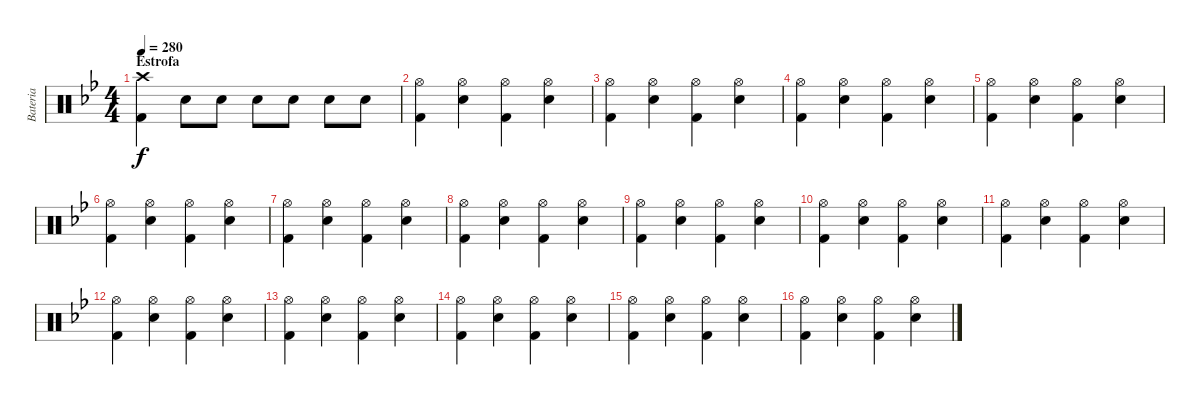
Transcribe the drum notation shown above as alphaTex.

\track ("Bateria" "Bateria") {instrument percussion}
\staff {score}
\articulation defaults
\ts (4 4)
\section ("" "Estrofa")
\tempo 280
\clef neutral
\ks bb
("Crash high (hit)" "Kick (hit) 2").4{dy f} "Electric Snare (hit)".8 "Electric Snare (hit)".8 "Electric Snare (hit)".8 "Electric Snare (hit)".8 "Electric Snare (hit)".8 "Electric Snare (hit)".8 |
("Hi-Hat (open)" "Kick (hit) 2").4 ("Hi-Hat (open)" "Electric Snare (hit)").4 ("Hi-Hat (open)" "Kick (hit) 2").4 ("Hi-Hat (open)" "Electric Snare (hit)").4 |
("Hi-Hat (open)" "Kick (hit) 2").4 ("Hi-Hat (open)" "Electric Snare (hit)").4 ("Hi-Hat (open)" "Kick (hit) 2").4 ("Hi-Hat (open)" "Electric Snare (hit)").4 |
("Hi-Hat (open)" "Kick (hit) 2").4 ("Hi-Hat (open)" "Electric Snare (hit)").4 ("Hi-Hat (open)" "Kick (hit) 2").4 ("Hi-Hat (open)" "Electric Snare (hit)").4 |
("Hi-Hat (open)" "Kick (hit) 2").4 ("Hi-Hat (open)" "Electric Snare (hit)").4 ("Hi-Hat (open)" "Kick (hit) 2").4 ("Hi-Hat (open)" "Electric Snare (hit)").4 |
("Hi-Hat (open)" "Kick (hit) 2").4 ("Hi-Hat (open)" "Electric Snare (hit)").4 ("Hi-Hat (open)" "Kick (hit) 2").4 ("Hi-Hat (open)" "Electric Snare (hit)").4 |
("Hi-Hat (open)" "Kick (hit) 2").4 ("Hi-Hat (open)" "Electric Snare (hit)").4 ("Hi-Hat (open)" "Kick (hit) 2").4 ("Hi-Hat (open)" "Electric Snare (hit)").4 |
("Hi-Hat (open)" "Kick (hit) 2").4 ("Hi-Hat (open)" "Electric Snare (hit)").4 ("Hi-Hat (open)" "Kick (hit) 2").4 ("Hi-Hat (open)" "Electric Snare (hit)").4 |
("Hi-Hat (open)" "Kick (hit) 2").4 ("Hi-Hat (open)" "Electric Snare (hit)").4 ("Hi-Hat (open)" "Kick (hit) 2").4 ("Hi-Hat (open)" "Electric Snare (hit)").4 |
("Hi-Hat (open)" "Kick (hit) 2").4 ("Hi-Hat (open)" "Electric Snare (hit)").4 ("Hi-Hat (open)" "Kick (hit) 2").4 ("Hi-Hat (open)" "Electric Snare (hit)").4 |
("Hi-Hat (open)" "Kick (hit) 2").4 ("Hi-Hat (open)" "Electric Snare (hit)").4 ("Hi-Hat (open)" "Kick (hit) 2").4 ("Hi-Hat (open)" "Electric Snare (hit)").4 |
("Hi-Hat (open)" "Kick (hit) 2").4 ("Hi-Hat (open)" "Electric Snare (hit)").4 ("Hi-Hat (open)" "Kick (hit) 2").4 ("Hi-Hat (open)" "Electric Snare (hit)").4 |
("Hi-Hat (open)" "Kick (hit) 2").4 ("Hi-Hat (open)" "Electric Snare (hit)").4 ("Hi-Hat (open)" "Kick (hit) 2").4 ("Hi-Hat (open)" "Electric Snare (hit)").4 |
("Hi-Hat (open)" "Kick (hit) 2").4 ("Hi-Hat (open)" "Electric Snare (hit)").4 ("Hi-Hat (open)" "Kick (hit) 2").4 ("Hi-Hat (open)" "Electric Snare (hit)").4 |
("Hi-Hat (open)" "Kick (hit) 2").4 ("Hi-Hat (open)" "Electric Snare (hit)").4 ("Hi-Hat (open)" "Kick (hit) 2").4 ("Hi-Hat (open)" "Electric Snare (hit)").4 |
("Hi-Hat (open)" "Kick (hit) 2").4 ("Hi-Hat (open)" "Electric Snare (hit)").4 ("Hi-Hat (open)" "Kick (hit) 2").4 ("Hi-Hat (open)" "Electric Snare (hit)").4
